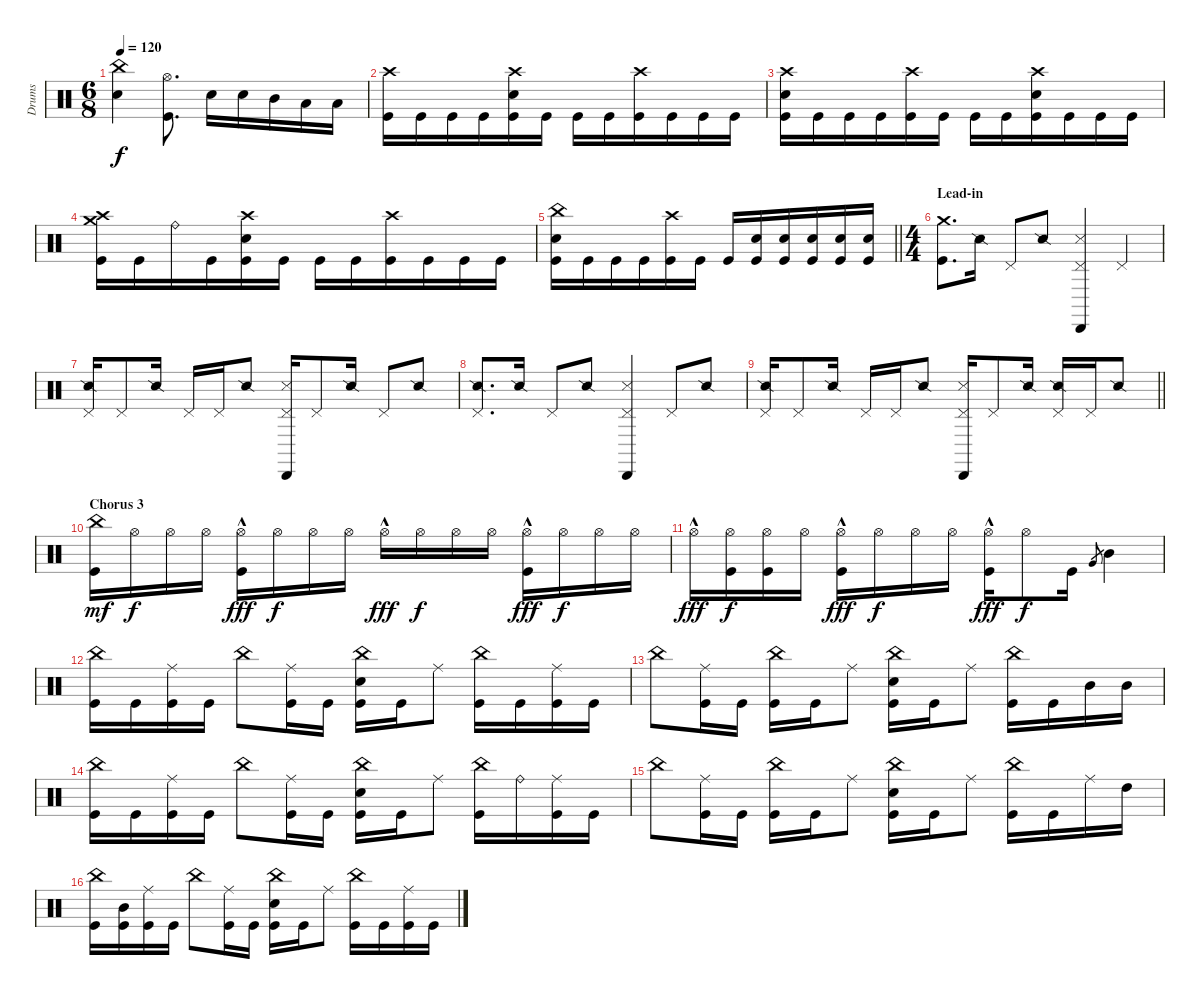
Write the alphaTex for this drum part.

\track ("Drums" "Drums") {instrument percussion}
\staff {score}
\articulation defaults
\ts (6 8)
\tempo 120
\clef neutral
\ks c
("China (hit)" "Electric Snare (hit)").4{dy f} ("Hi-Hat (open)" "Kick (hit)").8{d} "Electric Snare (hit)".16 "Electric Snare (hit)".16 "Mid Tom (hit)".16 "Low Tom (hit)".16 "Low Tom (hit)".16 |
("Crash high (hit)" "Kick (hit)").16 "Kick (hit)".16 "Kick (hit)".16 "Kick (hit)".16 ("Crash high (hit)" "Electric Snare (hit)" "Kick (hit)").16 "Kick (hit)".16 "Kick (hit)".16 "Kick (hit)".16 ("Crash high (hit)" "Kick (hit)").16 "Kick (hit)".16 "Kick (hit)".16 "Kick (hit)".16 |
("Crash high (hit)" "Electric Snare (hit)" "Kick (hit)").16 "Kick (hit)".16 "Kick (hit)".16 "Kick (hit)".16 ("Crash high (hit)" "Kick (hit)").16 "Kick (hit)".16 "Kick (hit)".16 "Kick (hit)".16 ("Crash high (hit)" "Electric Snare (hit)" "Kick (hit)").16 "Kick (hit)".16 "Kick (hit)".16 "Kick (hit)".16 |
("Crash high (hit)" "Crash medium (hit)" "Kick (hit)").16 "Kick (hit)".16 "Ride (bell)".16 "Kick (hit)".16 ("Crash high (hit)" "Electric Snare (hit)" "Kick (hit)").16 "Kick (hit)".16 "Kick (hit)".16 "Kick (hit)".16 ("Crash high (hit)" "Kick (hit)").16 "Kick (hit)".16 "Kick (hit)".16 "Kick (hit)".16 |
\barLineRight lightlight
("China (hit)" "Electric Snare (hit)" "Kick (hit)").16 "Kick (hit)".16 "Kick (hit)".16 "Kick (hit)".16 ("Crash high (hit)" "Kick (hit)").16 "Kick (hit)".16 "Kick (hit)".16 ("Electric Snare (hit)" "Kick (hit)").16 ("Electric Snare (hit)" "Kick (hit)").16 ("Electric Snare (hit)" "Kick (hit)").16 ("Electric Snare (hit)" "Kick (hit)").16 ("Electric Snare (hit)" "Kick (hit)").16 |
\ts (4 4)
\section ("" "Lead-in")
("Crash medium (hit)" "Kick (hit)").8{d volume 10} "Snare (side stick) 2".16 "Pedal Hi-Hat (hit)".8 "Snare (side stick) 2".8 ("Pedal Hi-Hat (hit)" "Snare (side stick) 3" "Cabasa (hit)").4 "Pedal Hi-Hat (hit)".4 |
("Pedal Hi-Hat (hit)" "Snare (side stick) 2").16 "Pedal Hi-Hat (hit)".8 "Snare (side stick) 2".16 "Pedal Hi-Hat (hit)".16 "Pedal Hi-Hat (hit)".16 "Snare (side stick) 2".8 ("Pedal Hi-Hat (hit)" "Snare (side stick) 3" "Cabasa (hit)").16 "Pedal Hi-Hat (hit)".8 "Snare (side stick) 2".16 "Pedal Hi-Hat (hit)".8 "Snare (side stick) 2".8 |
("Pedal Hi-Hat (hit)" "Snare (side stick) 2").8{d} "Snare (side stick) 2".16 "Pedal Hi-Hat (hit)".8 "Snare (side stick) 2".8 ("Pedal Hi-Hat (hit)" "Snare (side stick) 3" "Cabasa (hit)").4 "Pedal Hi-Hat (hit)".8 "Snare (side stick) 2".8 |
\barLineRight lightlight
("Pedal Hi-Hat (hit)" "Snare (side stick) 2").16 "Pedal Hi-Hat (hit)".8 "Snare (side stick) 2".16 "Pedal Hi-Hat (hit)".16 "Pedal Hi-Hat (hit)".16 "Snare (side stick) 2".8 ("Pedal Hi-Hat (hit)" "Snare (side stick) 3" "Cabasa (hit)").16 "Pedal Hi-Hat (hit)".8 "Snare (side stick) 2".16 ("Pedal Hi-Hat (hit)" "Snare (side stick) 2").16 "Pedal Hi-Hat (hit)".16 "Snare (side stick) 2".8 |
\section ("" "Chorus 3")
("China (hit)" "Kick (hit)").16{dy mf volume 13} "Hi-Hat (open)".16{dy f} "Hi-Hat (open)".16 "Hi-Hat (open)".16 ("Hi-Hat (open)"{hac} "Kick (hit)").16{dy fff} "Hi-Hat (open)".16{dy f} "Hi-Hat (open)".16 "Hi-Hat (open)".16 "Hi-Hat (open)"{hac}.16{dy fff} "Hi-Hat (open)".16{dy f} "Hi-Hat (open)".16 "Hi-Hat (open)".16 ("Hi-Hat (open)"{hac} "Kick (hit)").16{dy fff} "Hi-Hat (open)".16{dy f} "Hi-Hat (open)".16 "Hi-Hat (open)".16 |
"Hi-Hat (open)"{hac}.16{dy fff} ("Hi-Hat (open)" "Kick (hit)").16{dy f} ("Hi-Hat (open)" "Kick (hit)").16 "Hi-Hat (open)".16 ("Hi-Hat (open)"{hac} "Kick (hit)").16{dy fff} "Hi-Hat (open)".16{dy f} "Hi-Hat (open)".16 "Hi-Hat (open)".16 ("Hi-Hat (open)"{hac} "Kick (hit)").16{dy fff} "Hi-Hat (open)".8{dy f} "Kick (hit)".16 "Very Low Tom (hit)".8{gr} "Mid Tom (hit)".4 |
("China (hit)" "Kick (hit)").16 "Kick (hit)".16 ("Ride (middle)" "Kick (hit)").16 "Kick (hit)".16 "China (hit)".8 ("Ride (middle)" "Kick (hit)").16 "Kick (hit)".16 ("China (hit)" "Electric Snare (hit)" "Kick (hit)").16 "Kick (hit)".16 "Ride (middle)".8 ("China (hit)" "Kick (hit)").16 "Kick (hit)".16 ("Ride (middle)" "Kick (hit)").16 "Kick (hit)".16 |
"China (hit)".8 ("Ride (middle)" "Kick (hit)").16 "Kick (hit)".16 ("China (hit)" "Kick (hit)").16 "Kick (hit)".16 "Ride (middle)".8 ("China (hit)" "Electric Snare (hit)" "Kick (hit)").16 "Kick (hit)".16 "Ride (middle)".8 ("China (hit)" "Kick (hit)").16 "Kick (hit)".16 "Mid Tom (hit)".16 "Mid Tom (hit)".16 |
("China (hit)" "Kick (hit)").16 "Kick (hit)".16 ("Ride (middle)" "Kick (hit)").16 "Kick (hit)".16 "China (hit)".8 ("Ride (middle)" "Kick (hit)").16 "Kick (hit)".16 ("China (hit)" "Electric Snare (hit)" "Kick (hit)").16 "Kick (hit)".16 "Ride (middle)".8 ("China (hit)" "Kick (hit)").16 "Ride (bell)".16 ("Ride (middle)" "Kick (hit)").16 "Kick (hit)".16 |
"China (hit)".8 ("Ride (middle)" "Kick (hit)").16 "Kick (hit)".16 ("China (hit)" "Kick (hit)").16 "Kick (hit)".16 "Ride (middle)".8 ("China (hit)" "Electric Snare (hit)" "Kick (hit)").16 "Kick (hit)".16 "Ride (middle)".8 ("China (hit)" "Kick (hit)").16 "Kick (hit)".16 "Ride (middle)".16 "High Tom (hit)".16 |
("China (hit)" "Kick (hit)").16 ("Mid Tom (hit)" "Kick (hit)").16 ("Ride (middle)" "Kick (hit)").16 "Kick (hit)".16 "China (hit)".8 ("Ride (middle)" "Kick (hit)").16 "Kick (hit)".16 ("China (hit)" "Electric Snare (hit)" "Kick (hit)").16 "Kick (hit)".16 "Ride (middle)".8 ("China (hit)" "Kick (hit)").16 "Kick (hit)".16 ("Ride (middle)" "Kick (hit)").16 "Kick (hit)".16
